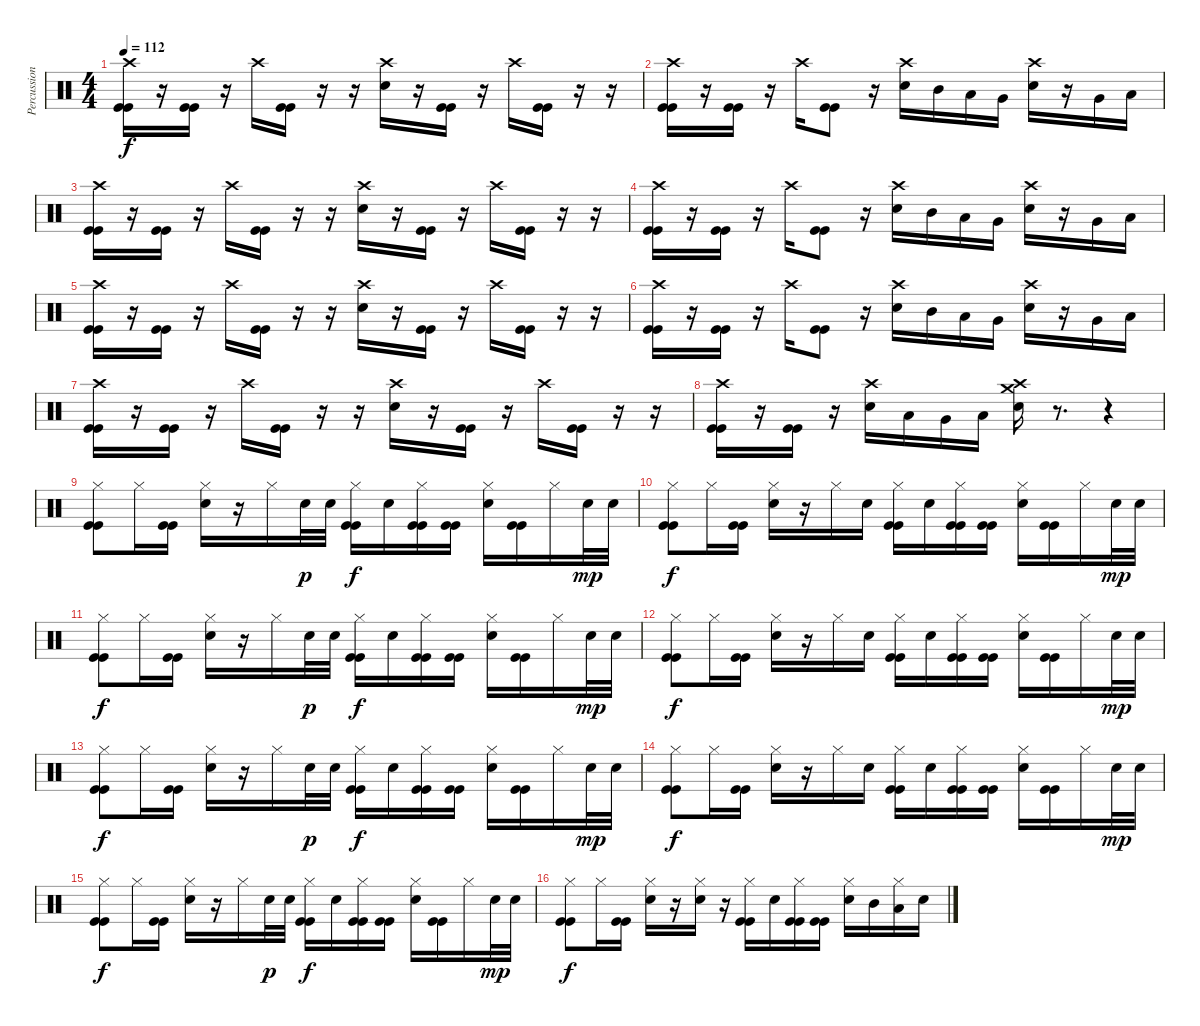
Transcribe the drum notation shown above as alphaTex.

\track ("Percussion" "Percussion") {instrument percussion}
\staff {score}
\articulation defaults
\ts (4 4)
\tempo 112
\clef neutral
\ks c
("Crash high (hit)" "Kick (hit)" "Kick (hit)").16{dy f} r.16 ("Kick (hit)" "Kick (hit)").16 r.16 "Crash high (hit)".16 ("Kick (hit)" "Kick (hit)").16 r.16 r.16 ("Crash high (hit)" "Electric Snare (hit)").16 r.16 ("Kick (hit)" "Kick (hit)").16 r.16 "Crash high (hit)".16 ("Kick (hit)" "Kick (hit)").16 r.16 r.16 |
("Crash high (hit)" "Kick (hit)" "Kick (hit)").16 r.16 ("Kick (hit)" "Kick (hit)").16 r.16 "Crash high (hit)".16 ("Kick (hit)" "Kick (hit)").8 r.16 ("Crash high (hit)" "Electric Snare (hit)").16 "Mid Tom (hit)".16 "Low Tom (hit)".16 "Very Low Tom (hit)".16 ("Crash high (hit)" "Electric Snare (hit)").16 r.16 "Very Low Tom (hit)".16 "Low Floor Tom (hit)".16 |
("Crash high (hit)" "Kick (hit)" "Kick (hit)").16 r.16 ("Kick (hit)" "Kick (hit)").16 r.16 "Crash high (hit)".16 ("Kick (hit)" "Kick (hit)").16 r.16 r.16 ("Crash high (hit)" "Electric Snare (hit)").16 r.16 ("Kick (hit)" "Kick (hit)").16 r.16 "Crash high (hit)".16 ("Kick (hit)" "Kick (hit)").16 r.16 r.16 |
("Crash high (hit)" "Kick (hit)" "Kick (hit)").16 r.16 ("Kick (hit)" "Kick (hit)").16 r.16 "Crash high (hit)".16 ("Kick (hit)" "Kick (hit)").8 r.16 ("Crash high (hit)" "Electric Snare (hit)").16 "Mid Tom (hit)".16 "Low Tom (hit)".16 "Very Low Tom (hit)".16 ("Crash high (hit)" "Electric Snare (hit)").16 r.16 "Very Low Tom (hit)".16 "Low Floor Tom (hit)".16 |
("Crash high (hit)" "Kick (hit)" "Kick (hit)").16 r.16 ("Kick (hit)" "Kick (hit)").16 r.16 "Crash high (hit)".16 ("Kick (hit)" "Kick (hit)").16 r.16 r.16 ("Crash high (hit)" "Electric Snare (hit)").16 r.16 ("Kick (hit)" "Kick (hit)").16 r.16 "Crash high (hit)".16 ("Kick (hit)" "Kick (hit)").16 r.16 r.16 |
("Crash high (hit)" "Kick (hit)" "Kick (hit)").16 r.16 ("Kick (hit)" "Kick (hit)").16 r.16 "Crash high (hit)".16 ("Kick (hit)" "Kick (hit)").8 r.16 ("Crash high (hit)" "Electric Snare (hit)").16 "Mid Tom (hit)".16 "Low Tom (hit)".16 "Very Low Tom (hit)".16 ("Crash high (hit)" "Electric Snare (hit)").16 r.16 "Very Low Tom (hit)".16 "Low Floor Tom (hit)".16 |
("Crash high (hit)" "Kick (hit)" "Kick (hit)").16 r.16 ("Kick (hit)" "Kick (hit)").16 r.16 "Crash high (hit)".16 ("Kick (hit)" "Kick (hit)").16 r.16 r.16 ("Crash high (hit)" "Electric Snare (hit)").16 r.16 ("Kick (hit)" "Kick (hit)").16 r.16 "Crash high (hit)".16 ("Kick (hit)" "Kick (hit)").16 r.16 r.16 |
("Crash high (hit)" "Kick (hit)" "Kick (hit)").16 r.16 ("Kick (hit)" "Kick (hit)").16 r.16 ("Crash high (hit)" "Electric Snare (hit)").16 "Low Tom (hit)".16 "Very Low Tom (hit)".16 "Low Floor Tom (hit)".16 ("Crash high (hit)" "Crash medium (hit)" "Electric Snare (hit)").16 r.8{d} r.4 |
("Hi-Hat (closed)" "Kick (hit)" "Kick (hit)").8 "Hi-Hat (closed)".16 ("Kick (hit)" "Kick (hit)").16 ("Hi-Hat (closed)" "Electric Snare (hit)").16 r.16 "Hi-Hat (closed)".16 "Electric Snare (hit)".32{dy p} "Electric Snare (hit)".32 ("Hi-Hat (closed)" "Kick (hit)" "Kick (hit)").16{dy f} "Electric Snare (hit)".16 ("Hi-Hat (closed)" "Kick (hit)" "Kick (hit)").16 ("Kick (hit)" "Kick (hit)").16 ("Hi-Hat (closed)" "Electric Snare (hit)").16 ("Kick (hit)" "Kick (hit)").16 "Hi-Hat (closed)".16 "Electric Snare (hit)".32{dy mp} "Electric Snare (hit)".32 |
("Hi-Hat (closed)" "Kick (hit)" "Kick (hit)").8{dy f} "Hi-Hat (closed)".16 ("Kick (hit)" "Kick (hit)").16 ("Hi-Hat (closed)" "Electric Snare (hit)").16 r.16 "Hi-Hat (closed)".16 "Electric Snare (hit)".16 ("Hi-Hat (closed)" "Kick (hit)" "Kick (hit)").16 "Electric Snare (hit)".16 ("Hi-Hat (closed)" "Kick (hit)" "Kick (hit)").16 ("Kick (hit)" "Kick (hit)").16 ("Hi-Hat (closed)" "Electric Snare (hit)").16 ("Kick (hit)" "Kick (hit)").16 "Hi-Hat (closed)".16 "Electric Snare (hit)".32{dy mp} "Electric Snare (hit)".32 |
("Hi-Hat (closed)" "Kick (hit)" "Kick (hit)").8{dy f} "Hi-Hat (closed)".16 ("Kick (hit)" "Kick (hit)").16 ("Hi-Hat (closed)" "Electric Snare (hit)").16 r.16 "Hi-Hat (closed)".16 "Electric Snare (hit)".32{dy p} "Electric Snare (hit)".32 ("Hi-Hat (closed)" "Kick (hit)" "Kick (hit)").16{dy f} "Electric Snare (hit)".16 ("Hi-Hat (closed)" "Kick (hit)" "Kick (hit)").16 ("Kick (hit)" "Kick (hit)").16 ("Hi-Hat (closed)" "Electric Snare (hit)").16 ("Kick (hit)" "Kick (hit)").16 "Hi-Hat (closed)".16 "Electric Snare (hit)".32{dy mp} "Electric Snare (hit)".32 |
("Hi-Hat (closed)" "Kick (hit)" "Kick (hit)").8{dy f} "Hi-Hat (closed)".16 ("Kick (hit)" "Kick (hit)").16 ("Hi-Hat (closed)" "Electric Snare (hit)").16 r.16 "Hi-Hat (closed)".16 "Electric Snare (hit)".16 ("Hi-Hat (closed)" "Kick (hit)" "Kick (hit)").16 "Electric Snare (hit)".16 ("Hi-Hat (closed)" "Kick (hit)" "Kick (hit)").16 ("Kick (hit)" "Kick (hit)").16 ("Hi-Hat (closed)" "Electric Snare (hit)").16 ("Kick (hit)" "Kick (hit)").16 "Hi-Hat (closed)".16 "Electric Snare (hit)".32{dy mp} "Electric Snare (hit)".32 |
("Hi-Hat (closed)" "Kick (hit)" "Kick (hit)").8{dy f} "Hi-Hat (closed)".16 ("Kick (hit)" "Kick (hit)").16 ("Hi-Hat (closed)" "Electric Snare (hit)").16 r.16 "Hi-Hat (closed)".16 "Electric Snare (hit)".32{dy p} "Electric Snare (hit)".32 ("Hi-Hat (closed)" "Kick (hit)" "Kick (hit)").16{dy f} "Electric Snare (hit)".16 ("Hi-Hat (closed)" "Kick (hit)" "Kick (hit)").16 ("Kick (hit)" "Kick (hit)").16 ("Hi-Hat (closed)" "Electric Snare (hit)").16 ("Kick (hit)" "Kick (hit)").16 "Hi-Hat (closed)".16 "Electric Snare (hit)".32{dy mp} "Electric Snare (hit)".32 |
("Hi-Hat (closed)" "Kick (hit)" "Kick (hit)").8{dy f} "Hi-Hat (closed)".16 ("Kick (hit)" "Kick (hit)").16 ("Hi-Hat (closed)" "Electric Snare (hit)").16 r.16 "Hi-Hat (closed)".16 "Electric Snare (hit)".16 ("Hi-Hat (closed)" "Kick (hit)" "Kick (hit)").16 "Electric Snare (hit)".16 ("Hi-Hat (closed)" "Kick (hit)" "Kick (hit)").16 ("Kick (hit)" "Kick (hit)").16 ("Hi-Hat (closed)" "Electric Snare (hit)").16 ("Kick (hit)" "Kick (hit)").16 "Hi-Hat (closed)".16 "Electric Snare (hit)".32{dy mp} "Electric Snare (hit)".32 |
("Hi-Hat (closed)" "Kick (hit)" "Kick (hit)").8{dy f} "Hi-Hat (closed)".16 ("Kick (hit)" "Kick (hit)").16 ("Hi-Hat (closed)" "Electric Snare (hit)").16 r.16 "Hi-Hat (closed)".16 "Electric Snare (hit)".32{dy p} "Electric Snare (hit)".32 ("Hi-Hat (closed)" "Kick (hit)" "Kick (hit)").16{dy f} "Electric Snare (hit)".16 ("Hi-Hat (closed)" "Kick (hit)" "Kick (hit)").16 ("Kick (hit)" "Kick (hit)").16 ("Hi-Hat (closed)" "Electric Snare (hit)").16 ("Kick (hit)" "Kick (hit)").16 "Hi-Hat (closed)".16 "Electric Snare (hit)".32{dy mp} "Electric Snare (hit)".32 |
("Hi-Hat (closed)" "Kick (hit)" "Kick (hit)").8{dy f} "Hi-Hat (closed)".16 ("Kick (hit)" "Kick (hit)").16 ("Hi-Hat (closed)" "Electric Snare (hit)").16 r.16 ("Hi-Hat (closed)" "Electric Snare (hit)").16 r.16 ("Hi-Hat (closed)" "Kick (hit)" "Kick (hit)").16 "Electric Snare (hit)".16 ("Hi-Hat (closed)" "Kick (hit)" "Kick (hit)").16 ("Kick (hit)" "Kick (hit)").16 ("Hi-Hat (closed)" "Electric Snare (hit)").16 "Mid Tom (hit)".16 ("Hi-Hat (closed)" "Low Tom (hit)").16 "Electric Snare (hit)".16
